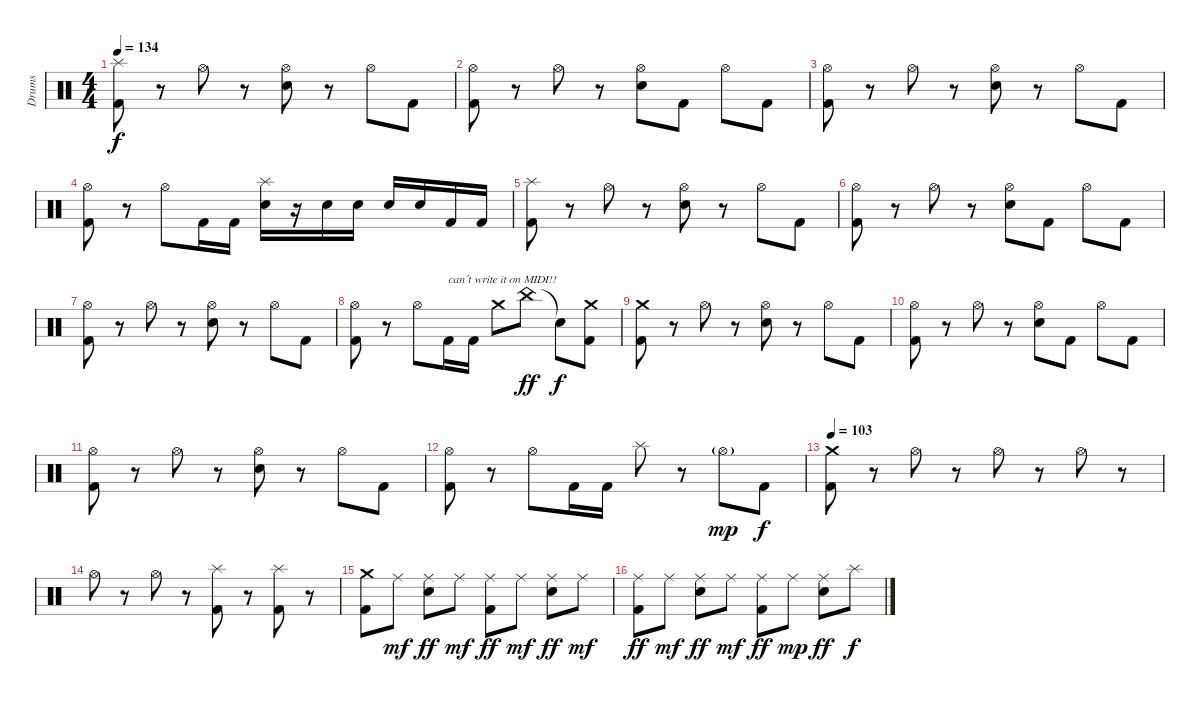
\track ("Drums" "Drums") {instrument percussion}
\staff {score}
\articulation defaults
\ts (4 4)
\tempo 134
\clef neutral
\ks c
("Splash (hit)" "Kick (hit) 2").8{dy f} r.8 "Hi-Hat (open)".8 r.8 ("Hi-Hat (open)" "Snare (hit) 2").8 r.8 "Hi-Hat (open)".8 "Kick (hit) 2".8 |
("Hi-Hat (open)" "Kick (hit) 2").8 r.8 "Hi-Hat (open)".8 r.8 ("Hi-Hat (open)" "Snare (hit) 2").8 "Kick (hit) 2".8 "Hi-Hat (open)".8 "Kick (hit) 2".8 |
("Hi-Hat (open)" "Kick (hit) 2").8 r.8 "Hi-Hat (open)".8 r.8 ("Hi-Hat (open)" "Snare (hit) 2").8 r.8 "Hi-Hat (open)".8 "Kick (hit) 2".8 |
("Hi-Hat (open)" "Kick (hit) 2").8 r.8 "Hi-Hat (open)".8 "Kick (hit) 2".16 "Kick (hit) 2".16 ("Splash (hit)" "Snare (hit) 2").16 r.16 "Snare (hit) 2".16 "Snare (hit) 2".16 "Snare (hit) 2".16 "Snare (hit) 2".16 "Kick (hit) 2".16 "Kick (hit) 2".16 |
("Splash (hit)" "Kick (hit) 2").8 r.8 "Hi-Hat (open)".8 r.8 ("Hi-Hat (open)" "Snare (hit) 2").8 r.8 "Hi-Hat (open)".8 "Kick (hit) 2".8 |
("Hi-Hat (open)" "Kick (hit) 2").8 r.8 "Hi-Hat (open)".8 r.8 ("Hi-Hat (open)" "Snare (hit) 2").8 "Kick (hit) 2".8 "Hi-Hat (open)".8 "Kick (hit) 2".8 |
("Hi-Hat (open)" "Kick (hit) 2").8 r.8 "Hi-Hat (open)".8 r.8 ("Hi-Hat (open)" "Snare (hit) 2").8 r.8 "Hi-Hat (open)".8 "Kick (hit) 2".8 |
("Hi-Hat (open)" "Kick (hit) 2").8 r.8 "Hi-Hat (open)".8 "Kick (hit) 2".16{txt "can´t write it on MIDI!!"} "Kick (hit) 2".16 "Crash medium (hit)".8 "China (hit)".8{dy ff} "Snare (hit)"{t}.8{dy f} ("Crash medium (hit)" "Kick (hit) 2").8 |
("Crash medium (hit)" "Kick (hit) 2").8 r.8 "Hi-Hat (open)".8 r.8 ("Hi-Hat (open)" "Snare (hit) 2").8 r.8 "Hi-Hat (open)".8 "Kick (hit) 2".8 |
("Hi-Hat (open)" "Kick (hit) 2").8 r.8 "Hi-Hat (open)".8 r.8 ("Hi-Hat (open)" "Snare (hit) 2").8 "Kick (hit) 2".8 "Hi-Hat (open)".8 "Kick (hit) 2".8 |
("Hi-Hat (open)" "Kick (hit) 2").8 r.8 "Hi-Hat (open)".8 r.8 ("Hi-Hat (open)" "Snare (hit) 2").8 r.8 "Hi-Hat (open)".8 "Kick (hit) 2".8 |
("Hi-Hat (open)" "Kick (hit) 2").8 r.8 "Hi-Hat (open)".8 "Kick (hit) 2".16 "Kick (hit) 2".16 "Splash (hit)".8 r.8 "Hi-Hat (open)"{g}.8{dy mp} "Kick (hit) 2".8{dy f} |
\tempo 103
("Crash medium (hit)" "Kick (hit) 2").8 r.8 "Hi-Hat (open)".8 r.8 "Hi-Hat (open)".8 r.8 "Hi-Hat (open)".8 r.8 |
"Hi-Hat (open)".8 r.8 "Hi-Hat (open)".8 r.8 ("Splash (hit)" "Kick (hit) 2").8 r.8 ("Splash (hit)" "Kick (hit) 2").8 r.8 |
("Crash medium (hit)" "Kick (hit) 2").8 "Ride (middle)".8{dy mf} ("Ride (middle)" "Snare (hit) 2").8{dy ff} "Ride (middle)".8{dy mf} ("Ride (middle)" "Kick (hit) 2").8{dy ff} "Ride (middle)".8{dy mf} ("Ride (middle)" "Snare (hit) 2").8{dy ff} "Ride (middle)".8{dy mf} |
("Ride (middle)" "Kick (hit) 2").8{dy ff} "Ride (middle)".8{dy mf} ("Ride (middle)" "Snare (hit) 2").8{dy ff} "Ride (middle)".8{dy mf} ("Ride (middle)" "Kick (hit) 2").8{dy ff} "Ride (middle)".8{dy mp} ("Ride (middle)" "Snare (hit) 2").8{dy ff} "Splash (hit)".8{dy f}
